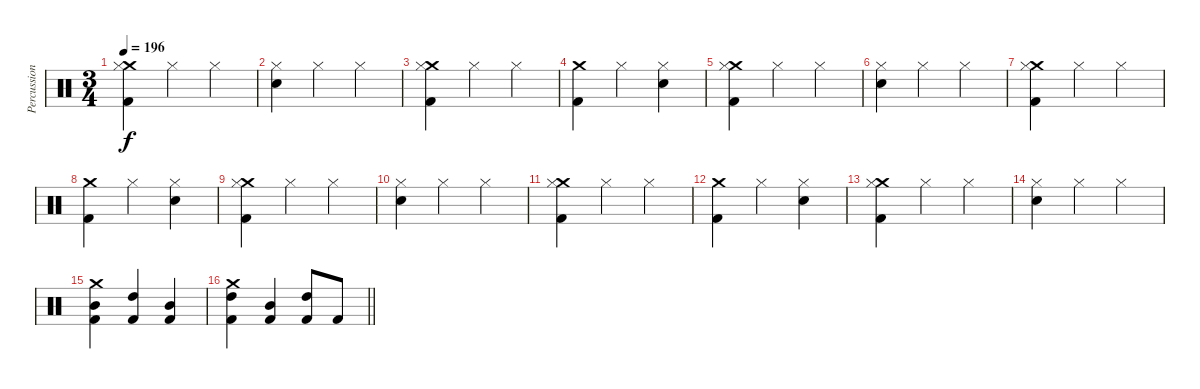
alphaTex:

\track ("Percussion" "Percussion") {instrument percussion}
\staff {score}
\articulation defaults
\ts (3 4)
\tempo 196
\clef neutral
\ks c
("Crash medium (hit)" "Hi-Hat (closed)" "Kick (hit) 2").4{dy f} "Hi-Hat (closed)".4 "Hi-Hat (closed)".4 |
("Hi-Hat (closed)" "Electric Snare (hit)").4 "Hi-Hat (closed)".4 "Hi-Hat (closed)".4 |
("Crash medium (hit)" "Hi-Hat (closed)" "Kick (hit) 2").4 "Hi-Hat (closed)".4 "Hi-Hat (closed)".4 |
("Crash medium (hit)" "Kick (hit) 2").4 "Hi-Hat (closed)".4 ("Hi-Hat (closed)" "Electric Snare (hit)").4 |
("Crash medium (hit)" "Hi-Hat (closed)" "Kick (hit) 2").4 "Hi-Hat (closed)".4 "Hi-Hat (closed)".4 |
("Hi-Hat (closed)" "Electric Snare (hit)").4 "Hi-Hat (closed)".4 "Hi-Hat (closed)".4 |
("Crash medium (hit)" "Hi-Hat (closed)" "Kick (hit) 2").4 "Hi-Hat (closed)".4 "Hi-Hat (closed)".4 |
("Crash medium (hit)" "Kick (hit) 2").4 "Hi-Hat (closed)".4 ("Hi-Hat (closed)" "Electric Snare (hit)").4 |
("Crash medium (hit)" "Hi-Hat (closed)" "Kick (hit) 2").4 "Hi-Hat (closed)".4 "Hi-Hat (closed)".4 |
("Hi-Hat (closed)" "Electric Snare (hit)").4 "Hi-Hat (closed)".4 "Hi-Hat (closed)".4 |
("Crash medium (hit)" "Hi-Hat (closed)" "Kick (hit) 2").4 "Hi-Hat (closed)".4 "Hi-Hat (closed)".4 |
("Crash medium (hit)" "Kick (hit) 2").4 "Hi-Hat (closed)".4 ("Hi-Hat (closed)" "Electric Snare (hit)").4 |
("Crash medium (hit)" "Hi-Hat (closed)" "Kick (hit) 2").4 "Hi-Hat (closed)".4 "Hi-Hat (closed)".4 |
("Hi-Hat (closed)" "Electric Snare (hit)").4 "Hi-Hat (closed)".4 "Hi-Hat (closed)".4 |
("Crash medium (hit)" "Mid Tom (hit)" "Kick (hit) 2").4 ("High Tom (hit)" "Kick (hit) 2").4 ("Mid Tom (hit)" "Kick (hit) 2").4 |
\barLineRight lightlight
("Crash medium (hit)" "High Tom (hit)" "Kick (hit) 2").4 ("Mid Tom (hit)" "Kick (hit) 2").4 ("High Tom (hit)" "Kick (hit) 2").8 "Kick (hit) 2".8
